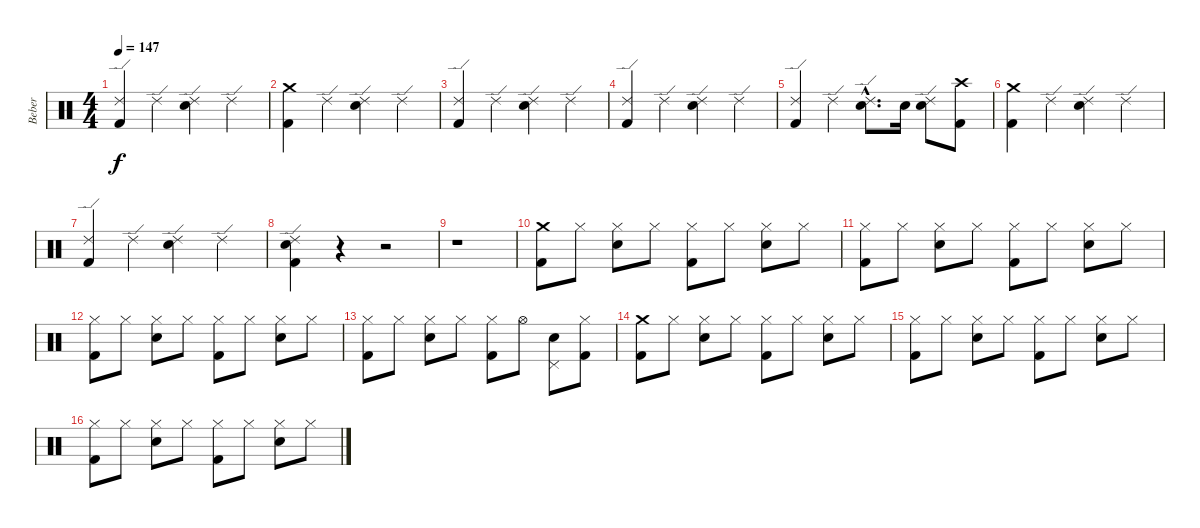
\track ("Beber" "Beber") {instrument percussion}
\staff {score}
\articulation defaults
\ts (4 4)
\tempo 147
\clef neutral
\ks c
("Ride (edge) 2" "Kick (hit) 2").4{dy f} "Ride (edge) 2".4 ("Ride (edge) 2" "Snare (hit) 2").4 "Ride (edge) 2".4 |
("Crash medium (hit)" "Kick (hit) 2").4 "Ride (edge) 2".4 ("Ride (edge) 2" "Snare (hit) 2").4 "Ride (edge) 2".4 |
("Ride (edge) 2" "Kick (hit) 2").4 "Ride (edge) 2".4 ("Ride (edge) 2" "Snare (hit) 2").4 "Ride (edge) 2".4 |
("Ride (edge) 2" "Kick (hit) 2").4 "Ride (edge) 2".4 ("Ride (edge) 2" "Snare (hit) 2").4 "Ride (edge) 2".4 |
("Ride (edge) 2" "Kick (hit) 2").4 "Ride (edge) 2".4 ("Ride (edge) 2"{hac} "Snare (hit) 2"{hac}).8{d} "Snare (hit) 2".16 ("Ride (edge) 2" "Snare (hit) 2").8 ("Crash high (hit)" "Kick (hit) 2").8 |
("Crash medium (hit)" "Kick (hit) 2").4 "Ride (edge) 2".4 ("Ride (edge) 2" "Snare (hit) 2").4 "Ride (edge) 2".4 |
("Ride (edge) 2" "Kick (hit) 2").4 "Ride (edge) 2".4 ("Ride (edge) 2" "Snare (hit) 2").4 "Ride (edge) 2".4 |
("Ride (edge) 2" "Snare (hit) 2" "Kick (hit) 2").4 r.4 r.2 |
r.1 |
("Crash medium (hit)" "Kick (hit) 2").8 "Hi-Hat (closed)".8 ("Hi-Hat (closed)" "Snare (hit) 2").8 "Hi-Hat (closed)".8 ("Hi-Hat (closed)" "Kick (hit) 2").8 "Hi-Hat (closed)".8 ("Hi-Hat (closed)" "Snare (hit) 2").8 "Hi-Hat (closed)".8 |
("Hi-Hat (closed)" "Kick (hit) 2").8 "Hi-Hat (closed)".8 ("Hi-Hat (closed)" "Snare (hit) 2").8 "Hi-Hat (closed)".8 ("Hi-Hat (closed)" "Kick (hit) 2").8 "Hi-Hat (closed)".8 ("Hi-Hat (closed)" "Snare (hit) 2").8 "Hi-Hat (closed)".8 |
("Hi-Hat (closed)" "Kick (hit) 2").8 "Hi-Hat (closed)".8 ("Hi-Hat (closed)" "Snare (hit) 2").8 "Hi-Hat (closed)".8 ("Hi-Hat (closed)" "Kick (hit) 2").8 "Hi-Hat (closed)".8 ("Hi-Hat (closed)" "Snare (hit) 2").8 "Hi-Hat (closed)".8 |
("Hi-Hat (closed)" "Kick (hit) 2").8 "Hi-Hat (closed)".8 ("Hi-Hat (closed)" "Snare (hit) 2").8 "Hi-Hat (closed)".8 ("Hi-Hat (closed)" "Kick (hit) 2").8 "Hi-Hat (open)".8 ("Snare (hit) 2" "Pedal Hi-Hat (hit)").8 ("Hi-Hat (closed)" "Kick (hit) 2").8 |
("Crash medium (hit)" "Kick (hit) 2").8 "Hi-Hat (closed)".8 ("Hi-Hat (closed)" "Snare (hit) 2").8 "Hi-Hat (closed)".8 ("Hi-Hat (closed)" "Kick (hit) 2").8 "Hi-Hat (closed)".8 ("Hi-Hat (closed)" "Snare (hit) 2").8 "Hi-Hat (closed)".8 |
("Hi-Hat (closed)" "Kick (hit) 2").8 "Hi-Hat (closed)".8 ("Hi-Hat (closed)" "Snare (hit) 2").8 "Hi-Hat (closed)".8 ("Hi-Hat (closed)" "Kick (hit) 2").8 "Hi-Hat (closed)".8 ("Hi-Hat (closed)" "Snare (hit) 2").8 "Hi-Hat (closed)".8 |
("Hi-Hat (closed)" "Kick (hit) 2").8 "Hi-Hat (closed)".8 ("Hi-Hat (closed)" "Snare (hit) 2").8 "Hi-Hat (closed)".8 ("Hi-Hat (closed)" "Kick (hit) 2").8 "Hi-Hat (closed)".8 ("Hi-Hat (closed)" "Snare (hit) 2").8 "Hi-Hat (closed)".8
